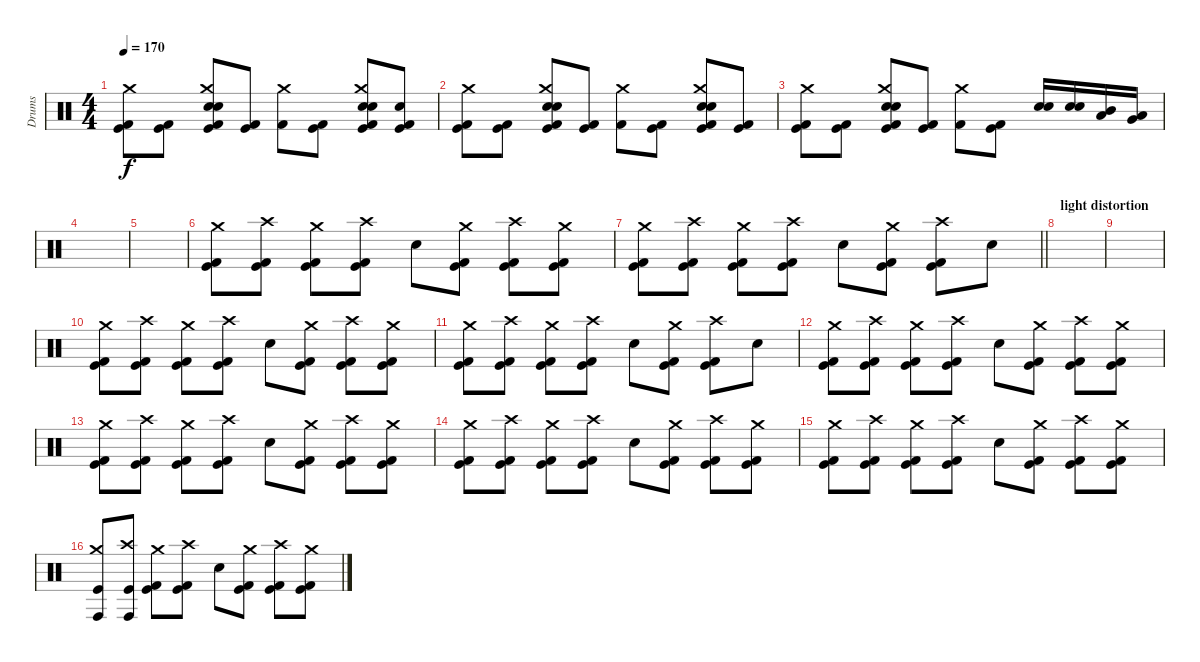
\track ("Drums" "Drums") {instrument percussion}
\staff {score}
\articulation defaults
\ts (4 4)
\tempo 170
\clef neutral
\ks c
("Kick (hit) 2" "Kick (hit)" "Crash medium (hit)").8{dy f} ("Kick (hit) 2" "Kick (hit)").8 ("Snare (hit) 2" "Electric Snare (hit)" "Kick (hit) 2" "Kick (hit)" "Crash medium (hit)").8 ("Kick (hit) 2" "Kick (hit)").8 ("Kick (hit) 2" "Crash medium (hit)").8 ("Kick (hit) 2" "Kick (hit)").8 ("Snare (hit) 2" "Electric Snare (hit)" "Kick (hit) 2" "Kick (hit)" "Crash medium (hit)").8 ("Electric Snare (hit)" "Kick (hit) 2" "Kick (hit)").8 |
("Kick (hit) 2" "Kick (hit)" "Crash medium (hit)").8 ("Kick (hit) 2" "Kick (hit)").8 ("Snare (hit) 2" "Electric Snare (hit)" "Kick (hit) 2" "Kick (hit)" "Crash medium (hit)").8 ("Kick (hit) 2" "Kick (hit)").8 ("Kick (hit) 2" "Crash medium (hit)").8 ("Kick (hit) 2" "Kick (hit)").8 ("Snare (hit) 2" "Electric Snare (hit)" "Kick (hit) 2" "Kick (hit)" "Crash medium (hit)").8 ("Kick (hit) 2" "Kick (hit)").8 |
("Kick (hit) 2" "Kick (hit)" "Crash medium (hit)").8 ("Kick (hit) 2" "Kick (hit)").8 ("Snare (hit) 2" "Electric Snare (hit)" "Kick (hit) 2" "Kick (hit)" "Crash medium (hit)").8 ("Kick (hit) 2" "Kick (hit)").8 ("Kick (hit) 2" "Crash medium (hit)").8 ("Kick (hit) 2" "Kick (hit)").8 ("Electric Snare (hit)" "Snare (hit) 2").16 ("Electric Snare (hit)" "Snare (hit) 2").16 ("Mid Tom (hit)" "Low Tom (hit)").16 ("Low Tom (hit)" "Very Low Tom (hit)").16 |
|
|
("Kick (hit) 2" "Kick (hit)" "Crash medium (hit)").8 ("Kick (hit) 2" "Kick (hit)" "Crash high (hit)").8 ("Kick (hit) 2" "Kick (hit)" "Crash medium (hit)").8 ("Kick (hit) 2" "Kick (hit)" "Crash high (hit)").8 "Snare (hit) 2".8 ("Kick (hit) 2" "Kick (hit)" "Crash medium (hit)").8 ("Kick (hit) 2" "Kick (hit)" "Crash high (hit)").8 ("Kick (hit) 2" "Kick (hit)" "Crash medium (hit)").8 |
\barLineRight lightlight
("Kick (hit) 2" "Kick (hit)" "Crash medium (hit)").8 ("Kick (hit) 2" "Kick (hit)" "Crash high (hit)").8 ("Kick (hit) 2" "Kick (hit)" "Crash medium (hit)").8 ("Kick (hit) 2" "Kick (hit)" "Crash high (hit)").8 "Snare (hit) 2".8 ("Kick (hit) 2" "Kick (hit)" "Crash medium (hit)").8 ("Kick (hit) 2" "Kick (hit)" "Crash high (hit)").8 "Snare (hit) 2".8 |
\section ("" "light distortion")
|
|
("Kick (hit) 2" "Kick (hit)" "Crash medium (hit)").8 ("Kick (hit) 2" "Kick (hit)" "Crash high (hit)").8 ("Kick (hit) 2" "Kick (hit)" "Crash medium (hit)").8 ("Kick (hit) 2" "Kick (hit)" "Crash high (hit)").8 "Snare (hit) 2".8 ("Kick (hit) 2" "Kick (hit)" "Crash medium (hit)").8 ("Kick (hit) 2" "Kick (hit)" "Crash high (hit)").8 ("Kick (hit) 2" "Kick (hit)" "Crash medium (hit)").8 |
("Kick (hit) 2" "Kick (hit)" "Crash medium (hit)").8 ("Kick (hit) 2" "Kick (hit)" "Crash high (hit)").8 ("Kick (hit) 2" "Kick (hit)" "Crash medium (hit)").8 ("Kick (hit) 2" "Kick (hit)" "Crash high (hit)").8 "Snare (hit) 2".8 ("Kick (hit) 2" "Kick (hit)" "Crash medium (hit)").8 ("Kick (hit) 2" "Kick (hit)" "Crash high (hit)").8 "Snare (hit) 2".8 |
("Kick (hit) 2" "Kick (hit)" "Crash medium (hit)").8 ("Kick (hit) 2" "Kick (hit)" "Crash high (hit)").8 ("Kick (hit) 2" "Kick (hit)" "Crash medium (hit)").8 ("Kick (hit) 2" "Kick (hit)" "Crash high (hit)").8 "Snare (hit) 2".8 ("Kick (hit) 2" "Kick (hit)" "Crash medium (hit)").8 ("Kick (hit) 2" "Kick (hit)" "Crash high (hit)").8 ("Kick (hit) 2" "Kick (hit)" "Crash medium (hit)").8 |
("Kick (hit) 2" "Kick (hit)" "Crash medium (hit)").8 ("Kick (hit) 2" "Kick (hit)" "Crash high (hit)").8 ("Kick (hit) 2" "Kick (hit)" "Crash medium (hit)").8 ("Kick (hit) 2" "Kick (hit)" "Crash high (hit)").8 "Snare (hit) 2".8 ("Kick (hit) 2" "Kick (hit)" "Crash medium (hit)").8 ("Kick (hit) 2" "Kick (hit)" "Crash high (hit)").8 ("Kick (hit) 2" "Kick (hit)" "Crash medium (hit)").8 |
("Kick (hit) 2" "Kick (hit)" "Crash medium (hit)").8 ("Kick (hit) 2" "Kick (hit)" "Crash high (hit)").8 ("Kick (hit) 2" "Kick (hit)" "Crash medium (hit)").8 ("Kick (hit) 2" "Kick (hit)" "Crash high (hit)").8 "Snare (hit) 2".8 ("Kick (hit) 2" "Kick (hit)" "Crash medium (hit)").8 ("Kick (hit) 2" "Kick (hit)" "Crash high (hit)").8 ("Kick (hit) 2" "Kick (hit)" "Crash medium (hit)").8 |
("Kick (hit) 2" "Kick (hit)" "Crash medium (hit)").8 ("Kick (hit) 2" "Kick (hit)" "Crash high (hit)").8 ("Kick (hit) 2" "Kick (hit)" "Crash medium (hit)").8 ("Kick (hit) 2" "Kick (hit)" "Crash high (hit)").8 "Snare (hit) 2".8 ("Kick (hit) 2" "Kick (hit)" "Crash medium (hit)").8 ("Kick (hit) 2" "Kick (hit)" "Crash high (hit)").8 ("Kick (hit) 2" "Kick (hit)" "Crash medium (hit)").8 |
("Conga high (hit)" "Kick (hit)" "Crash medium (hit)").8 ("Conga high (hit)" "Kick (hit)" "Crash high (hit)").8 ("Kick (hit) 2" "Kick (hit)" "Crash medium (hit)").8 ("Kick (hit) 2" "Kick (hit)" "Crash high (hit)").8 "Snare (hit) 2".8 ("Kick (hit) 2" "Kick (hit)" "Crash medium (hit)").8 ("Kick (hit) 2" "Kick (hit)" "Crash high (hit)").8 ("Kick (hit) 2" "Kick (hit)" "Crash medium (hit)").8
